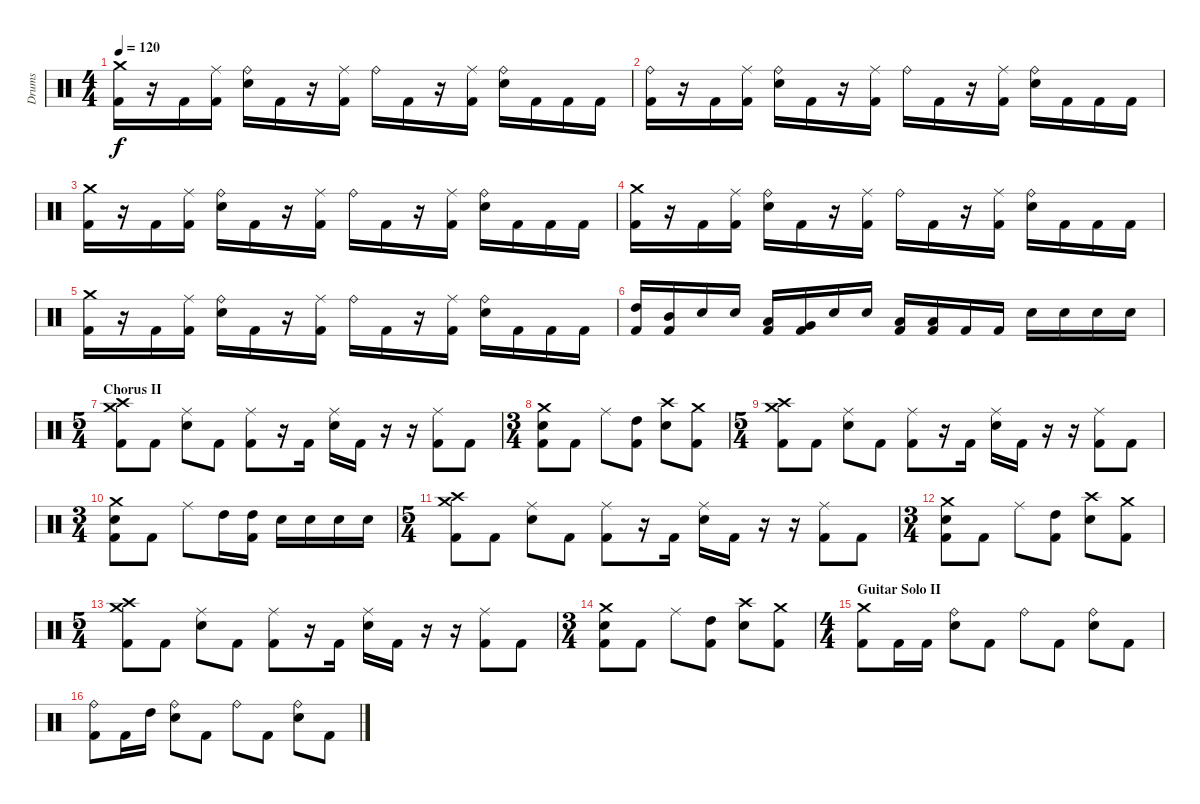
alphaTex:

\track ("Drums" "Drums") {instrument percussion}
\staff {score}
\articulation defaults
\ts (4 4)
\tempo 120
\clef neutral
\ks c
("Crash medium (hit)" "Kick (hit) 2").16{dy f} r.16 "Kick (hit) 2".16 ("Ride (middle)" "Kick (hit) 2").16 ("Ride (bell)" "Electric Snare (hit)").16 "Kick (hit) 2".16 r.16 ("Ride (middle)" "Kick (hit) 2").16 "Ride (bell)".16 "Kick (hit) 2".16 r.16 ("Ride (middle)" "Kick (hit) 2").16 ("Ride (bell)" "Electric Snare (hit)").16 "Kick (hit) 2".16 "Kick (hit) 2".16 "Kick (hit) 2".16 |
("Ride (bell)" "Kick (hit) 2").16 r.16 "Kick (hit) 2".16 ("Ride (middle)" "Kick (hit) 2").16 ("Ride (bell)" "Electric Snare (hit)").16 "Kick (hit) 2".16 r.16 ("Ride (middle)" "Kick (hit) 2").16 "Ride (bell)".16 "Kick (hit) 2".16 r.16 ("Ride (middle)" "Kick (hit) 2").16 ("Ride (bell)" "Electric Snare (hit)").16 "Kick (hit) 2".16 "Kick (hit) 2".16 "Kick (hit) 2".16 |
("Crash medium (hit)" "Kick (hit) 2").16 r.16 "Kick (hit) 2".16 ("Ride (middle)" "Kick (hit) 2").16 ("Ride (bell)" "Electric Snare (hit)").16 "Kick (hit) 2".16 r.16 ("Ride (middle)" "Kick (hit) 2").16 "Ride (bell)".16 "Kick (hit) 2".16 r.16 ("Ride (middle)" "Kick (hit) 2").16 ("Ride (bell)" "Electric Snare (hit)").16 "Kick (hit) 2".16 "Kick (hit) 2".16 "Kick (hit) 2".16 |
("Crash medium (hit)" "Kick (hit) 2").16 r.16 "Kick (hit) 2".16 ("Ride (middle)" "Kick (hit) 2").16 ("Ride (bell)" "Electric Snare (hit)").16 "Kick (hit) 2".16 r.16 ("Ride (middle)" "Kick (hit) 2").16 "Ride (bell)".16 "Kick (hit) 2".16 r.16 ("Ride (middle)" "Kick (hit) 2").16 ("Ride (bell)" "Electric Snare (hit)").16 "Kick (hit) 2".16 "Kick (hit) 2".16 "Kick (hit) 2".16 |
("Crash medium (hit)" "Kick (hit) 2").16 r.16 "Kick (hit) 2".16 ("Ride (middle)" "Kick (hit) 2").16 ("Ride (bell)" "Electric Snare (hit)").16 "Kick (hit) 2".16 r.16 ("Ride (middle)" "Kick (hit) 2").16 "Ride (bell)".16 "Kick (hit) 2".16 r.16 ("Ride (middle)" "Kick (hit) 2").16 ("Ride (bell)" "Electric Snare (hit)").16 "Kick (hit) 2".16 "Kick (hit) 2".16 "Kick (hit) 2".16 |
("High Tom (hit)" "Kick (hit) 2").16 ("Mid Tom (hit)" "Kick (hit) 2").16 "Electric Snare (hit)".16 "Electric Snare (hit)".16 ("Low Tom (hit)" "Kick (hit) 2").16 ("Very Low Tom (hit)" "Kick (hit) 2").16 "Electric Snare (hit)".16 "Electric Snare (hit)".16 ("Low Floor Tom (hit)" "Kick (hit) 2").16 ("Low Floor Tom (hit)" "Kick (hit) 2").16 "Kick (hit) 2".16 "Kick (hit) 2".16 "Electric Snare (hit)".16 "Electric Snare (hit)".16 "Electric Snare (hit)".16 "Electric Snare (hit)".16 |
\ts (5 4)
\section ("" "Chorus II")
("Crash high (hit)" "Crash medium (hit)" "Kick (hit) 2").8 "Kick (hit) 2".8 ("Ride (middle)" "Electric Snare (hit)").8 "Kick (hit) 2".8 ("Ride (middle)" "Kick (hit) 2").8 r.16 "Kick (hit) 2".16 ("Ride (middle)" "Electric Snare (hit)").16 "Kick (hit) 2".16 r.16 r.16 ("Ride (middle)" "Kick (hit) 2").8 "Kick (hit) 2".8 |
\ts (3 4)
("Crash medium (hit)" "Electric Snare (hit)" "Kick (hit) 2").8 "Kick (hit) 2".8 "Ride (middle)".8 ("High Tom (hit)" "Kick (hit) 2").8 ("Crash high (hit)" "Electric Snare (hit)").8 ("Crash medium (hit)" "Kick (hit) 2").8 |
\ts (5 4)
("Crash high (hit)" "Crash medium (hit)" "Kick (hit) 2").8 "Kick (hit) 2".8 ("Ride (middle)" "Electric Snare (hit)").8 "Kick (hit) 2".8 ("Ride (middle)" "Kick (hit) 2").8 r.16 "Kick (hit) 2".16 ("Ride (middle)" "Electric Snare (hit)").16 "Kick (hit) 2".16 r.16 r.16 ("Ride (middle)" "Kick (hit) 2").8 "Kick (hit) 2".8 |
\ts (3 4)
("Crash medium (hit)" "Electric Snare (hit)" "Kick (hit) 2").8 "Kick (hit) 2".8 "Ride (middle)".8 "High Tom (hit)".16 ("High Tom (hit)" "Kick (hit) 2").16 "Electric Snare (hit)".16 "Electric Snare (hit)".16 "Electric Snare (hit)".16 "Electric Snare (hit)".16 |
\ts (5 4)
("Crash high (hit)" "Crash medium (hit)" "Kick (hit) 2").8 "Kick (hit) 2".8 ("Ride (middle)" "Electric Snare (hit)").8 "Kick (hit) 2".8 ("Ride (middle)" "Kick (hit) 2").8 r.16 "Kick (hit) 2".16 ("Ride (middle)" "Electric Snare (hit)").16 "Kick (hit) 2".16 r.16 r.16 ("Ride (middle)" "Kick (hit) 2").8 "Kick (hit) 2".8 |
\ts (3 4)
("Crash medium (hit)" "Electric Snare (hit)" "Kick (hit) 2").8 "Kick (hit) 2".8 "Ride (middle)".8 ("High Tom (hit)" "Kick (hit) 2").8 ("Crash high (hit)" "Electric Snare (hit)").8 ("Crash medium (hit)" "Kick (hit) 2").8 |
\ts (5 4)
("Crash high (hit)" "Crash medium (hit)" "Kick (hit) 2").8 "Kick (hit) 2".8 ("Ride (middle)" "Electric Snare (hit)").8 "Kick (hit) 2".8 ("Ride (middle)" "Kick (hit) 2").8 r.16 "Kick (hit) 2".16 ("Ride (middle)" "Electric Snare (hit)").16 "Kick (hit) 2".16 r.16 r.16 ("Ride (middle)" "Kick (hit) 2").8 "Kick (hit) 2".8 |
\ts (3 4)
("Crash medium (hit)" "Electric Snare (hit)" "Kick (hit) 2").8 "Kick (hit) 2".8 "Ride (middle)".8 ("High Tom (hit)" "Kick (hit) 2").8 ("Crash high (hit)" "Electric Snare (hit)").8 ("Crash medium (hit)" "Kick (hit) 2").8 |
\ts (4 4)
\section ("" "Guitar Solo II")
("Crash medium (hit)" "Kick (hit) 2").8{volume 12} "Kick (hit) 2".16 "Kick (hit) 2".16 ("Ride (bell)" "Electric Snare (hit)").8 "Kick (hit) 2".8 "Ride (bell)".8 "Kick (hit) 2".8 ("Ride (bell)" "Electric Snare (hit)").8 "Kick (hit) 2".8 |
("Ride (bell)" "Kick (hit) 2").8 "Kick (hit) 2".16 "High Tom (hit)".16 ("Ride (bell)" "Electric Snare (hit)").8 "Kick (hit) 2".8 "Ride (bell)".8 "Kick (hit) 2".8 ("Ride (bell)" "Electric Snare (hit)").8 "Kick (hit) 2".8
